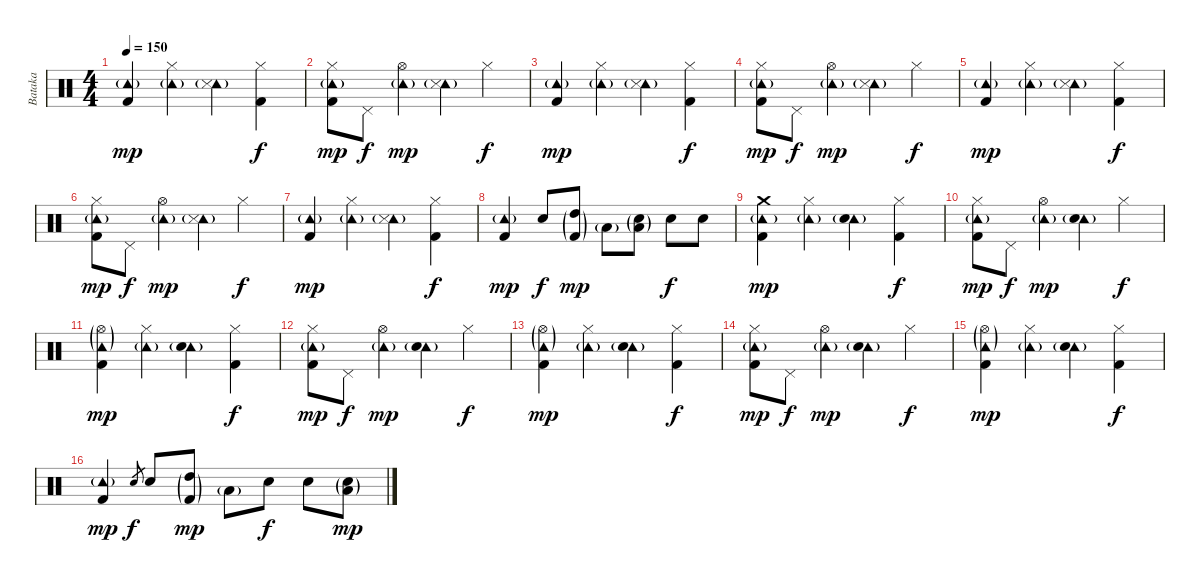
\track ("Bataka" "Bataka") {instrument percussion}
\staff {score}
\articulation defaults
\ts (4 4)
\tempo 150
\clef neutral
\ks c
("Tambourine (hit)"{g} "Kick (hit) 2").4{dy mp} ("Tambourine (hit)"{g} "Hi-Hat (closed)").4 ("Tambourine (hit)"{g} "Snare (side stick) 3").4 ("Hi-Hat (closed)" "Kick (hit) 2").4{dy f} |
("Tambourine (hit)"{g} "Hi-Hat (closed)" "Kick (hit) 2").8{dy mp} "Pedal Hi-Hat (hit)".8{dy f} ("Tambourine (hit)"{g} "Hi-Hat (open)").4{dy mp} ("Tambourine (hit)"{g} "Snare (side stick) 3").4 "Hi-Hat (closed)".4{dy f} |
("Tambourine (hit)"{g} "Kick (hit) 2").4{dy mp} ("Tambourine (hit)"{g} "Hi-Hat (closed)").4 ("Tambourine (hit)"{g} "Snare (side stick) 3").4 ("Hi-Hat (closed)" "Kick (hit) 2").4{dy f} |
("Tambourine (hit)"{g} "Hi-Hat (closed)" "Kick (hit) 2").8{dy mp} "Pedal Hi-Hat (hit)".8{dy f} ("Tambourine (hit)"{g} "Hi-Hat (open)").4{dy mp} ("Tambourine (hit)"{g} "Snare (side stick) 3").4 "Hi-Hat (closed)".4{dy f} |
("Tambourine (hit)"{g} "Kick (hit) 2").4{dy mp} ("Tambourine (hit)"{g} "Hi-Hat (closed)").4 ("Tambourine (hit)"{g} "Snare (side stick) 3").4 ("Hi-Hat (closed)" "Kick (hit) 2").4{dy f} |
("Tambourine (hit)"{g} "Hi-Hat (closed)" "Kick (hit) 2").8{dy mp} "Pedal Hi-Hat (hit)".8{dy f} ("Tambourine (hit)"{g} "Hi-Hat (open)").4{dy mp} ("Tambourine (hit)"{g} "Snare (side stick) 3").4 "Hi-Hat (closed)".4{dy f} |
("Tambourine (hit)"{g} "Kick (hit) 2").4{dy mp} ("Tambourine (hit)"{g} "Hi-Hat (closed)").4 ("Tambourine (hit)"{g} "Snare (side stick) 3").4 ("Hi-Hat (closed)" "Kick (hit) 2").4{dy f} |
("Tambourine (hit)"{g} "Kick (hit) 2").4{dy mp} "Electric Snare (hit)".8{dy f} ("High Tom (hit)"{g} "Kick (hit) 2"{g}).8{dy mp} "Low Tom (hit)"{g}.8 ("Electric Snare (hit)"{g} "Low Floor Tom (hit)"{g}).8 "Electric Snare (hit)".8{dy f} "Electric Snare (hit)".8 |
("Tambourine (hit)"{g} "Crash medium (hit)" "Kick (hit) 2").4{dy mp} ("Tambourine (hit)"{g} "Hi-Hat (closed)").4 ("Tambourine (hit)"{g} "Electric Snare (hit)").4 ("Hi-Hat (closed)" "Kick (hit) 2").4{dy f} |
("Tambourine (hit)"{g} "Hi-Hat (closed)" "Kick (hit) 2").8{dy mp} "Pedal Hi-Hat (hit)".8{dy f} ("Tambourine (hit)"{g} "Hi-Hat (open)").4{dy mp} ("Tambourine (hit)"{g} "Electric Snare (hit)").4 "Hi-Hat (closed)".4{dy f} |
("Tambourine (hit)"{g} "Hi-Hat (open)"{g} "Kick (hit) 2").4{dy mp} ("Tambourine (hit)"{g} "Hi-Hat (closed)").4 ("Tambourine (hit)"{g} "Electric Snare (hit)").4 ("Hi-Hat (closed)" "Kick (hit) 2").4{dy f} |
("Tambourine (hit)"{g} "Hi-Hat (closed)" "Kick (hit) 2").8{dy mp} "Pedal Hi-Hat (hit)".8{dy f} ("Tambourine (hit)"{g} "Hi-Hat (open)").4{dy mp} ("Tambourine (hit)"{g} "Electric Snare (hit)").4 "Hi-Hat (closed)".4{dy f} |
("Tambourine (hit)"{g} "Hi-Hat (open)"{g} "Kick (hit) 2").4{dy mp} ("Tambourine (hit)"{g} "Hi-Hat (closed)").4 ("Tambourine (hit)"{g} "Electric Snare (hit)").4 ("Hi-Hat (closed)" "Kick (hit) 2").4{dy f} |
("Tambourine (hit)"{g} "Hi-Hat (closed)" "Kick (hit) 2").8{dy mp} "Pedal Hi-Hat (hit)".8{dy f} ("Tambourine (hit)"{g} "Hi-Hat (open)").4{dy mp} ("Tambourine (hit)"{g} "Electric Snare (hit)").4 "Hi-Hat (closed)".4{dy f} |
("Tambourine (hit)"{g} "Hi-Hat (open)"{g} "Kick (hit) 2").4{dy mp} ("Tambourine (hit)"{g} "Hi-Hat (closed)").4 ("Tambourine (hit)"{g} "Electric Snare (hit)").4 ("Hi-Hat (closed)" "Kick (hit) 2").4{dy f} |
("Tambourine (hit)"{g} "Kick (hit) 2").4{dy mp} "Electric Snare (hit)".8{gr dy f} "Electric Snare (hit)".8 ("High Tom (hit)"{g} "Kick (hit) 2"{g}).8{dy mp} "Low Tom (hit)"{g}.8 "Electric Snare (hit)".8{dy f} "Electric Snare (hit)".8 ("Electric Snare (hit)"{g} "Low Floor Tom (hit)"{g}).8{dy mp}
